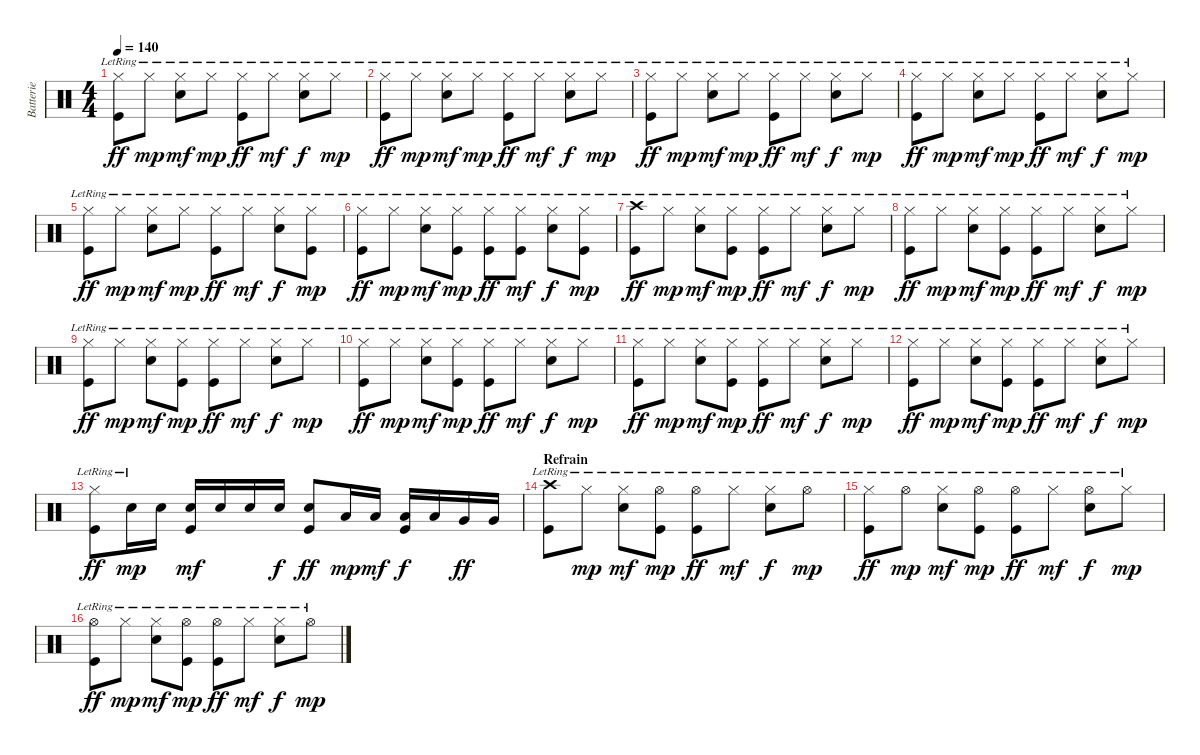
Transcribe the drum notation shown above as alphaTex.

\track ("Batterie" "Batterie") {instrument percussion}
\staff {score}
\articulation defaults
\ts (4 4)
\tempo 140
\clef neutral
\ks c
("Hi-Hat (closed)"{lr} "Kick (hit)"{lr}).8{dy ff} "Hi-Hat (closed)"{lr}.8{dy mp} ("Hi-Hat (closed)"{lr} "Snare (hit) 2"{lr}).8{dy mf} "Hi-Hat (closed)"{lr}.8{dy mp} ("Hi-Hat (closed)"{lr} "Kick (hit)"{lr}).8{dy ff} "Hi-Hat (closed)"{lr}.8{dy mf} ("Hi-Hat (closed)"{lr} "Snare (hit) 2"{lr}).8{dy f} "Hi-Hat (closed)"{lr}.8{dy mp} |
("Hi-Hat (closed)"{lr} "Kick (hit)"{lr}).8{dy ff} "Hi-Hat (closed)"{lr}.8{dy mp} ("Hi-Hat (closed)"{lr} "Snare (hit) 2"{lr}).8{dy mf} "Hi-Hat (closed)"{lr}.8{dy mp} ("Hi-Hat (closed)"{lr} "Kick (hit)"{lr}).8{dy ff} "Hi-Hat (closed)"{lr}.8{dy mf} ("Hi-Hat (closed)"{lr} "Snare (hit) 2"{lr}).8{dy f} "Hi-Hat (closed)"{lr}.8{dy mp} |
("Hi-Hat (closed)"{lr} "Kick (hit)"{lr}).8{dy ff} "Hi-Hat (closed)"{lr}.8{dy mp} ("Hi-Hat (closed)"{lr} "Snare (hit) 2"{lr}).8{dy mf} "Hi-Hat (closed)"{lr}.8{dy mp} ("Hi-Hat (closed)"{lr} "Kick (hit)"{lr}).8{dy ff} "Hi-Hat (closed)"{lr}.8{dy mf} ("Hi-Hat (closed)"{lr} "Snare (hit) 2"{lr}).8{dy f} "Hi-Hat (closed)"{lr}.8{dy mp} |
("Hi-Hat (closed)"{lr} "Kick (hit)"{lr}).8{dy ff} "Hi-Hat (closed)"{lr}.8{dy mp} ("Hi-Hat (closed)"{lr} "Snare (hit) 2"{lr}).8{dy mf} "Hi-Hat (closed)"{lr}.8{dy mp} ("Hi-Hat (closed)"{lr} "Kick (hit)"{lr}).8{dy ff} "Hi-Hat (closed)"{lr}.8{dy mf} ("Hi-Hat (closed)"{lr} "Snare (hit) 2"{lr}).8{dy f} "Hi-Hat (closed)"{lr}.8{dy mp} |
("Hi-Hat (closed)"{lr} "Kick (hit)"{lr}).8{dy ff} "Hi-Hat (closed)"{lr}.8{dy mp} ("Hi-Hat (closed)"{lr} "Snare (hit) 2"{lr}).8{dy mf} "Hi-Hat (closed)"{lr}.8{dy mp} ("Hi-Hat (closed)"{lr} "Kick (hit)"{lr}).8{dy ff} "Hi-Hat (closed)"{lr}.8{dy mf} ("Hi-Hat (closed)"{lr} "Snare (hit) 2"{lr}).8{dy f} ("Hi-Hat (closed)"{lr} "Kick (hit)").8{dy mp} |
("Hi-Hat (closed)"{lr} "Kick (hit)"{lr}).8{dy ff} "Hi-Hat (closed)"{lr}.8{dy mp} ("Hi-Hat (closed)"{lr} "Snare (hit) 2"{lr}).8{dy mf} ("Hi-Hat (closed)"{lr} "Kick (hit)").8{dy mp} ("Hi-Hat (closed)"{lr} "Kick (hit)"{lr}).8{dy ff} ("Hi-Hat (closed)"{lr} "Kick (hit)").8{dy mf} ("Hi-Hat (closed)"{lr} "Snare (hit) 2"{lr}).8{dy f} ("Hi-Hat (closed)"{lr} "Kick (hit)").8{dy mp} |
("Crash high (hit)" "Kick (hit)"{lr}).8{dy ff} "Hi-Hat (closed)"{lr}.8{dy mp} ("Hi-Hat (closed)"{lr} "Snare (hit) 2"{lr}).8{dy mf} ("Hi-Hat (closed)"{lr} "Kick (hit)").8{dy mp} ("Hi-Hat (closed)"{lr} "Kick (hit)"{lr}).8{dy ff} "Hi-Hat (closed)"{lr}.8{dy mf} ("Hi-Hat (closed)"{lr} "Snare (hit) 2"{lr}).8{dy f} "Hi-Hat (closed)"{lr}.8{dy mp} |
("Hi-Hat (closed)"{lr} "Kick (hit)"{lr}).8{dy ff} "Hi-Hat (closed)"{lr}.8{dy mp} ("Hi-Hat (closed)"{lr} "Snare (hit) 2"{lr}).8{dy mf} ("Hi-Hat (closed)"{lr} "Kick (hit)").8{dy mp} ("Hi-Hat (closed)"{lr} "Kick (hit)"{lr}).8{dy ff} "Hi-Hat (closed)"{lr}.8{dy mf} ("Hi-Hat (closed)"{lr} "Snare (hit) 2"{lr}).8{dy f} "Hi-Hat (closed)"{lr}.8{dy mp} |
("Hi-Hat (closed)"{lr} "Kick (hit)"{lr}).8{dy ff} "Hi-Hat (closed)"{lr}.8{dy mp} ("Hi-Hat (closed)"{lr} "Snare (hit) 2"{lr}).8{dy mf} ("Hi-Hat (closed)"{lr} "Kick (hit)").8{dy mp} ("Hi-Hat (closed)"{lr} "Kick (hit)"{lr}).8{dy ff} "Hi-Hat (closed)"{lr}.8{dy mf} ("Hi-Hat (closed)"{lr} "Snare (hit) 2"{lr}).8{dy f} "Hi-Hat (closed)"{lr}.8{dy mp} |
("Hi-Hat (closed)"{lr} "Kick (hit)"{lr}).8{dy ff} "Hi-Hat (closed)"{lr}.8{dy mp} ("Hi-Hat (closed)"{lr} "Snare (hit) 2"{lr}).8{dy mf} ("Hi-Hat (closed)"{lr} "Kick (hit)").8{dy mp} ("Hi-Hat (closed)"{lr} "Kick (hit)"{lr}).8{dy ff} "Hi-Hat (closed)"{lr}.8{dy mf} ("Hi-Hat (closed)"{lr} "Snare (hit) 2"{lr}).8{dy f} "Hi-Hat (closed)"{lr}.8{dy mp} |
("Hi-Hat (closed)"{lr} "Kick (hit)"{lr}).8{dy ff} "Hi-Hat (closed)"{lr}.8{dy mp} ("Hi-Hat (closed)"{lr} "Snare (hit) 2"{lr}).8{dy mf} ("Hi-Hat (closed)"{lr} "Kick (hit)").8{dy mp} ("Hi-Hat (closed)"{lr} "Kick (hit)"{lr}).8{dy ff} "Hi-Hat (closed)"{lr}.8{dy mf} ("Hi-Hat (closed)"{lr} "Snare (hit) 2"{lr}).8{dy f} "Hi-Hat (closed)"{lr}.8{dy mp} |
("Hi-Hat (closed)"{lr} "Kick (hit)"{lr}).8{dy ff} "Hi-Hat (closed)"{lr}.8{dy mp} ("Hi-Hat (closed)"{lr} "Snare (hit) 2"{lr}).8{dy mf} ("Hi-Hat (closed)"{lr} "Kick (hit)").8{dy mp} ("Hi-Hat (closed)"{lr} "Kick (hit)"{lr}).8{dy ff} "Hi-Hat (closed)"{lr}.8{dy mf} ("Hi-Hat (closed)"{lr} "Snare (hit) 2"{lr}).8{dy f} "Hi-Hat (closed)"{lr}.8{dy mp} |
("Hi-Hat (closed)"{lr} "Kick (hit)"{lr}).8{dy ff} "Snare (hit) 2"{lr}.16{dy mp} "Snare (hit) 2".16 ("Snare (hit) 2" "Kick (hit)").16{dy mf} "Snare (hit) 2".16 "Snare (hit) 2".16 "Snare (hit) 2".16{dy f} ("Snare (hit) 2" "Kick (hit)").8{dy ff} "Low Tom (hit)".16{dy mp} "Low Tom (hit)".16{dy mf} ("Low Tom (hit)" "Kick (hit)").16{dy f} "Low Tom (hit)".16 "Very Low Tom (hit)".16{dy ff} "Very Low Tom (hit)".16 |
\section ("" "Refrain")
("Crash high (hit)"{lr} "Kick (hit)"{lr}).8 "Hi-Hat (closed)"{lr}.8{dy mp} ("Hi-Hat (closed)"{lr} "Snare (hit) 2"{lr}).8{dy mf} ("Hi-Hat (open)"{lr} "Kick (hit)").8{dy mp} ("Hi-Hat (open)"{lr} "Kick (hit)"{lr}).8{dy ff} "Hi-Hat (closed)"{lr}.8{dy mf} ("Hi-Hat (closed)"{lr} "Snare (hit) 2"{lr}).8{dy f} "Hi-Hat (open)"{lr}.8{dy mp} |
("Hi-Hat (closed)"{lr} "Kick (hit)"{lr}).8{dy ff} "Hi-Hat (open)"{lr}.8{dy mp} ("Hi-Hat (closed)"{lr} "Snare (hit) 2"{lr}).8{dy mf} ("Hi-Hat (open)"{lr} "Kick (hit)").8{dy mp} ("Hi-Hat (open)"{lr} "Kick (hit)"{lr}).8{dy ff} "Hi-Hat (closed)"{lr}.8{dy mf} ("Hi-Hat (open)"{lr} "Snare (hit) 2"{lr}).8{dy f} "Hi-Hat (closed)"{lr}.8{dy mp} |
("Hi-Hat (open)" "Kick (hit)"{lr}).8{dy ff} "Hi-Hat (closed)"{lr}.8{dy mp} ("Hi-Hat (closed)"{lr} "Snare (hit) 2"{lr}).8{dy mf} ("Hi-Hat (open)"{lr} "Kick (hit)").8{dy mp} ("Hi-Hat (open)"{lr} "Kick (hit)"{lr}).8{dy ff} "Hi-Hat (closed)"{lr}.8{dy mf} ("Hi-Hat (closed)"{lr} "Snare (hit) 2"{lr}).8{dy f} "Hi-Hat (open)"{lr}.8{dy mp}
